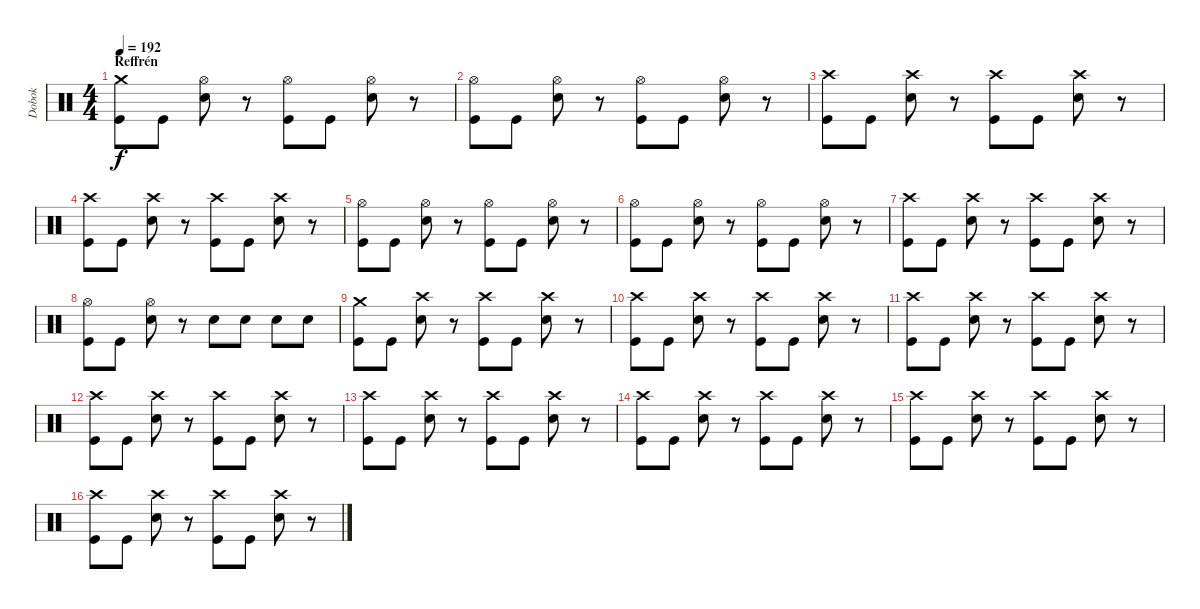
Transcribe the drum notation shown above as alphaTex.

\track ("Dobok" "Dobok") {instrument percussion}
\staff {score}
\articulation defaults
\ts (4 4)
\section ("" "Reffrén")
\tempo 192
\clef neutral
\ks c
("Crash medium (hit)" "Kick (hit)").8{dy f} "Kick (hit)".8 ("Hi-Hat (open)" "Electric Snare (hit)").8 r.8 ("Hi-Hat (open)" "Kick (hit)").8 "Kick (hit)".8 ("Hi-Hat (open)" "Electric Snare (hit)").8 r.8 |
("Hi-Hat (open)" "Kick (hit)").8 "Kick (hit)".8 ("Hi-Hat (open)" "Electric Snare (hit)").8 r.8 ("Hi-Hat (open)" "Kick (hit)").8 "Kick (hit)".8 ("Hi-Hat (open)" "Electric Snare (hit)").8 r.8 |
("Crash high (hit)" "Kick (hit)").8 "Kick (hit)".8 ("Crash high (hit)" "Electric Snare (hit)").8 r.8 ("Crash high (hit)" "Kick (hit)").8 "Kick (hit)".8 ("Crash high (hit)" "Electric Snare (hit)").8 r.8 |
("Crash high (hit)" "Kick (hit)").8 "Kick (hit)".8 ("Crash high (hit)" "Electric Snare (hit)").8 r.8 ("Crash high (hit)" "Kick (hit)").8 "Kick (hit)".8 ("Crash high (hit)" "Electric Snare (hit)").8 r.8 |
("Hi-Hat (open)" "Kick (hit)").8 "Kick (hit)".8 ("Hi-Hat (open)" "Electric Snare (hit)").8 r.8 ("Hi-Hat (open)" "Kick (hit)").8 "Kick (hit)".8 ("Hi-Hat (open)" "Electric Snare (hit)").8 r.8 |
("Hi-Hat (open)" "Kick (hit)").8 "Kick (hit)".8 ("Hi-Hat (open)" "Electric Snare (hit)").8 r.8 ("Hi-Hat (open)" "Kick (hit)").8 "Kick (hit)".8 ("Hi-Hat (open)" "Electric Snare (hit)").8 r.8 |
("Crash high (hit)" "Kick (hit)").8 "Kick (hit)".8 ("Crash high (hit)" "Electric Snare (hit)").8 r.8 ("Crash high (hit)" "Kick (hit)").8 "Kick (hit)".8 ("Crash high (hit)" "Electric Snare (hit)").8 r.8 |
("Hi-Hat (open)" "Kick (hit)").8 "Kick (hit)".8 ("Hi-Hat (open)" "Electric Snare (hit)").8 r.8 "Electric Snare (hit)".8 "Electric Snare (hit)".8 "Electric Snare (hit)".8 "Electric Snare (hit)".8 |
("Crash medium (hit)" "Kick (hit)").8 "Kick (hit)".8 ("Crash high (hit)" "Electric Snare (hit)").8 r.8 ("Crash high (hit)" "Kick (hit)").8 "Kick (hit)".8 ("Crash high (hit)" "Electric Snare (hit)").8 r.8 |
("Crash high (hit)" "Kick (hit)").8 "Kick (hit)".8 ("Crash high (hit)" "Electric Snare (hit)").8 r.8 ("Crash high (hit)" "Kick (hit)").8 "Kick (hit)".8 ("Crash high (hit)" "Electric Snare (hit)").8 r.8 |
("Crash high (hit)" "Kick (hit)").8 "Kick (hit)".8 ("Crash high (hit)" "Electric Snare (hit)").8 r.8 ("Crash high (hit)" "Kick (hit)").8 "Kick (hit)".8 ("Crash high (hit)" "Electric Snare (hit)").8 r.8 |
("Crash high (hit)" "Kick (hit)").8 "Kick (hit)".8 ("Crash high (hit)" "Electric Snare (hit)").8 r.8 ("Crash high (hit)" "Kick (hit)").8 "Kick (hit)".8 ("Crash high (hit)" "Electric Snare (hit)").8 r.8 |
("Crash high (hit)" "Kick (hit)").8 "Kick (hit)".8 ("Crash high (hit)" "Electric Snare (hit)").8 r.8 ("Crash high (hit)" "Kick (hit)").8 "Kick (hit)".8 ("Crash high (hit)" "Electric Snare (hit)").8 r.8 |
("Crash high (hit)" "Kick (hit)").8 "Kick (hit)".8 ("Crash high (hit)" "Electric Snare (hit)").8 r.8 ("Crash high (hit)" "Kick (hit)").8 "Kick (hit)".8 ("Crash high (hit)" "Electric Snare (hit)").8 r.8 |
("Crash high (hit)" "Kick (hit)").8 "Kick (hit)".8 ("Crash high (hit)" "Electric Snare (hit)").8 r.8 ("Crash high (hit)" "Kick (hit)").8 "Kick (hit)".8 ("Crash high (hit)" "Electric Snare (hit)").8 r.8 |
("Crash high (hit)" "Kick (hit)").8 "Kick (hit)".8 ("Crash high (hit)" "Electric Snare (hit)").8 r.8 ("Crash high (hit)" "Kick (hit)").8 "Kick (hit)".8 ("Crash high (hit)" "Electric Snare (hit)").8 r.8
